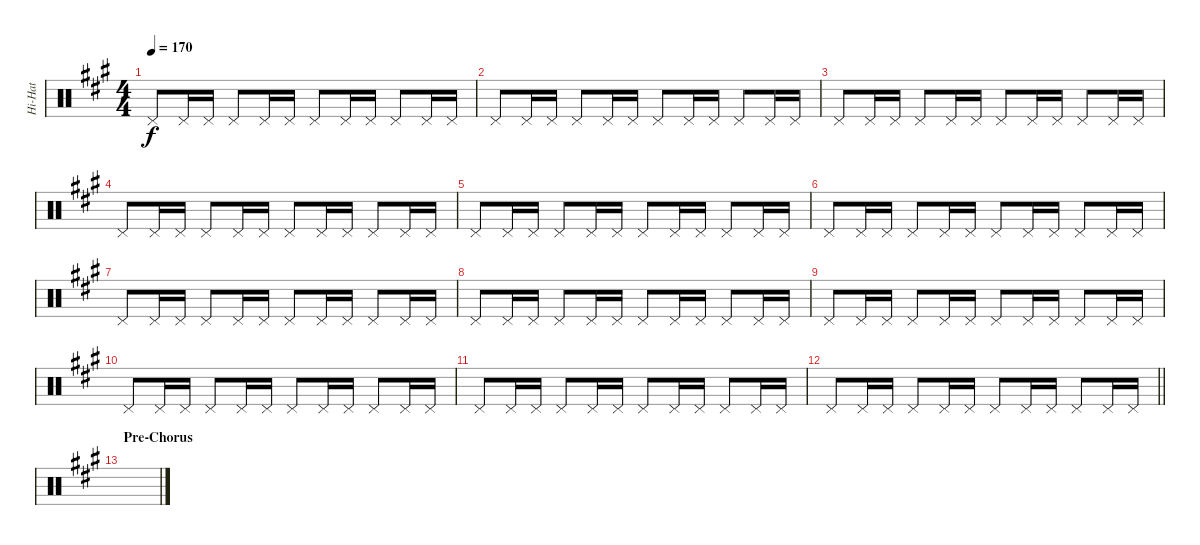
\track ("Hi-Hat" "Hi-Hat") {instrument percussion}
\staff {score}
\articulation defaults
\ts (4 4)
\tempo 170
\clef neutral
\ks a "Pedal Hi-Hat (hit)".8{dy f} "Pedal Hi-Hat (hit)".16 "Pedal Hi-Hat (hit)".16 "Pedal Hi-Hat (hit)".8 "Pedal Hi-Hat (hit)".16 "Pedal Hi-Hat (hit)".16 "Pedal Hi-Hat (hit)".8 "Pedal Hi-Hat (hit)".16 "Pedal Hi-Hat (hit)".16 "Pedal Hi-Hat (hit)".8 "Pedal Hi-Hat (hit)".16 "Pedal Hi-Hat (hit)".16
|
"Pedal Hi-Hat (hit)".8 "Pedal Hi-Hat (hit)".16 "Pedal Hi-Hat (hit)".16 "Pedal Hi-Hat (hit)".8 "Pedal Hi-Hat (hit)".16 "Pedal Hi-Hat (hit)".16 "Pedal Hi-Hat (hit)".8 "Pedal Hi-Hat (hit)".16 "Pedal Hi-Hat (hit)".16 "Pedal Hi-Hat (hit)".8 "Pedal Hi-Hat (hit)".16 "Pedal Hi-Hat (hit)".16 |
"Pedal Hi-Hat (hit)".8 "Pedal Hi-Hat (hit)".16 "Pedal Hi-Hat (hit)".16 "Pedal Hi-Hat (hit)".8 "Pedal Hi-Hat (hit)".16 "Pedal Hi-Hat (hit)".16 "Pedal Hi-Hat (hit)".8 "Pedal Hi-Hat (hit)".16 "Pedal Hi-Hat (hit)".16 "Pedal Hi-Hat (hit)".8 "Pedal Hi-Hat (hit)".16 "Pedal Hi-Hat (hit)".16 |
"Pedal Hi-Hat (hit)".8 "Pedal Hi-Hat (hit)".16 "Pedal Hi-Hat (hit)".16 "Pedal Hi-Hat (hit)".8 "Pedal Hi-Hat (hit)".16 "Pedal Hi-Hat (hit)".16 "Pedal Hi-Hat (hit)".8 "Pedal Hi-Hat (hit)".16 "Pedal Hi-Hat (hit)".16 "Pedal Hi-Hat (hit)".8 "Pedal Hi-Hat (hit)".16 "Pedal Hi-Hat (hit)".16 |
"Pedal Hi-Hat (hit)".8 "Pedal Hi-Hat (hit)".16 "Pedal Hi-Hat (hit)".16 "Pedal Hi-Hat (hit)".8 "Pedal Hi-Hat (hit)".16 "Pedal Hi-Hat (hit)".16 "Pedal Hi-Hat (hit)".8 "Pedal Hi-Hat (hit)".16 "Pedal Hi-Hat (hit)".16 "Pedal Hi-Hat (hit)".8 "Pedal Hi-Hat (hit)".16 "Pedal Hi-Hat (hit)".16 |
"Pedal Hi-Hat (hit)".8 "Pedal Hi-Hat (hit)".16 "Pedal Hi-Hat (hit)".16 "Pedal Hi-Hat (hit)".8 "Pedal Hi-Hat (hit)".16 "Pedal Hi-Hat (hit)".16 "Pedal Hi-Hat (hit)".8 "Pedal Hi-Hat (hit)".16 "Pedal Hi-Hat (hit)".16 "Pedal Hi-Hat (hit)".8 "Pedal Hi-Hat (hit)".16 "Pedal Hi-Hat (hit)".16 |
"Pedal Hi-Hat (hit)".8 "Pedal Hi-Hat (hit)".16 "Pedal Hi-Hat (hit)".16 "Pedal Hi-Hat (hit)".8 "Pedal Hi-Hat (hit)".16 "Pedal Hi-Hat (hit)".16 "Pedal Hi-Hat (hit)".8 "Pedal Hi-Hat (hit)".16 "Pedal Hi-Hat (hit)".16 "Pedal Hi-Hat (hit)".8 "Pedal Hi-Hat (hit)".16 "Pedal Hi-Hat (hit)".16 |
"Pedal Hi-Hat (hit)".8 "Pedal Hi-Hat (hit)".16 "Pedal Hi-Hat (hit)".16 "Pedal Hi-Hat (hit)".8 "Pedal Hi-Hat (hit)".16 "Pedal Hi-Hat (hit)".16 "Pedal Hi-Hat (hit)".8 "Pedal Hi-Hat (hit)".16 "Pedal Hi-Hat (hit)".16 "Pedal Hi-Hat (hit)".8 "Pedal Hi-Hat (hit)".16 "Pedal Hi-Hat (hit)".16 |
"Pedal Hi-Hat (hit)".8 "Pedal Hi-Hat (hit)".16 "Pedal Hi-Hat (hit)".16 "Pedal Hi-Hat (hit)".8 "Pedal Hi-Hat (hit)".16 "Pedal Hi-Hat (hit)".16 "Pedal Hi-Hat (hit)".8 "Pedal Hi-Hat (hit)".16 "Pedal Hi-Hat (hit)".16 "Pedal Hi-Hat (hit)".8 "Pedal Hi-Hat (hit)".16 "Pedal Hi-Hat (hit)".16 |
"Pedal Hi-Hat (hit)".8 "Pedal Hi-Hat (hit)".16 "Pedal Hi-Hat (hit)".16 "Pedal Hi-Hat (hit)".8 "Pedal Hi-Hat (hit)".16 "Pedal Hi-Hat (hit)".16 "Pedal Hi-Hat (hit)".8 "Pedal Hi-Hat (hit)".16 "Pedal Hi-Hat (hit)".16 "Pedal Hi-Hat (hit)".8 "Pedal Hi-Hat (hit)".16 "Pedal Hi-Hat (hit)".16 |
"Pedal Hi-Hat (hit)".8 "Pedal Hi-Hat (hit)".16 "Pedal Hi-Hat (hit)".16 "Pedal Hi-Hat (hit)".8 "Pedal Hi-Hat (hit)".16 "Pedal Hi-Hat (hit)".16 "Pedal Hi-Hat (hit)".8 "Pedal Hi-Hat (hit)".16 "Pedal Hi-Hat (hit)".16 "Pedal Hi-Hat (hit)".8 "Pedal Hi-Hat (hit)".16 "Pedal Hi-Hat (hit)".16 |
\barLineRight lightlight "Pedal Hi-Hat (hit)".8 "Pedal Hi-Hat (hit)".16 "Pedal Hi-Hat (hit)".16 "Pedal Hi-Hat (hit)".8 "Pedal Hi-Hat (hit)".16 "Pedal Hi-Hat (hit)".16 "Pedal Hi-Hat (hit)".8 "Pedal Hi-Hat (hit)".16 "Pedal Hi-Hat (hit)".16 "Pedal Hi-Hat (hit)".8 "Pedal Hi-Hat (hit)".16 "Pedal Hi-Hat (hit)".16
|
\section ("" "Pre-Chorus")
